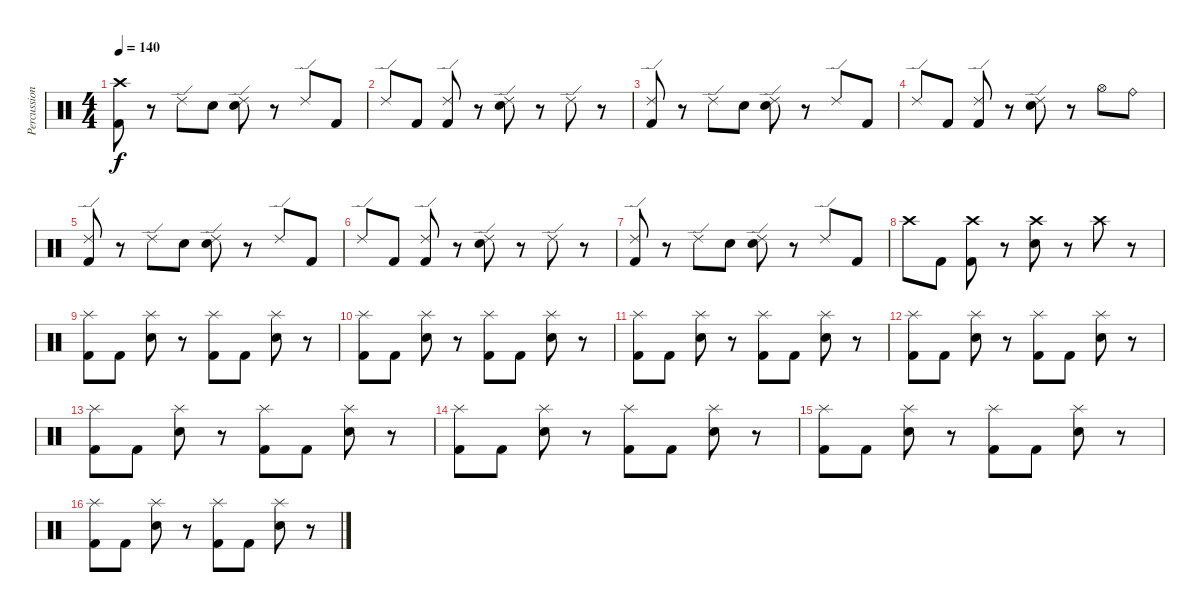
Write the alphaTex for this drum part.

\track ("Percussion" "Percussion") {instrument percussion}
\staff {score}
\articulation defaults
\ts (4 4)
\tempo 140
\clef neutral
\ks c
("Crash high (hit)" "Kick (hit) 2").8{dy f} r.8 "Ride (edge) 2".8 "Snare (hit) 2".8 ("Ride (edge) 2" "Snare (hit) 2").8 r.8 "Ride (edge) 2".8 "Kick (hit) 2".8 |
"Ride (edge) 2".8 "Kick (hit) 2".8 ("Ride (edge) 2" "Kick (hit) 2").8 r.8 ("Ride (edge) 2" "Snare (hit) 2").8 r.8 "Ride (edge) 2".8 r.8 |
("Ride (edge) 2" "Kick (hit) 2").8 r.8 "Ride (edge) 2".8 "Snare (hit) 2".8 ("Ride (edge) 2" "Snare (hit) 2").8 r.8 "Ride (edge) 2".8 "Kick (hit) 2".8 |
"Ride (edge) 2".8 "Kick (hit) 2".8 ("Ride (edge) 2" "Kick (hit) 2").8 r.8 ("Ride (edge) 2" "Snare (hit) 2").8 r.8 "Hi-Hat (open)".8 "Ride (bell)".8 |
("Ride (edge) 2" "Kick (hit) 2").8 r.8 "Ride (edge) 2".8 "Snare (hit) 2".8 ("Ride (edge) 2" "Snare (hit) 2").8 r.8 "Ride (edge) 2".8 "Kick (hit) 2".8 |
"Ride (edge) 2".8 "Kick (hit) 2".8 ("Ride (edge) 2" "Kick (hit) 2").8 r.8 ("Ride (edge) 2" "Snare (hit) 2").8 r.8 "Ride (edge) 2".8 r.8 |
("Ride (edge) 2" "Kick (hit) 2").8 r.8 "Ride (edge) 2".8 "Snare (hit) 2".8 ("Ride (edge) 2" "Snare (hit) 2").8 r.8 "Ride (edge) 2".8 "Kick (hit) 2".8 |
"Crash high (hit)".8 "Kick (hit) 2".8 ("Crash high (hit)" "Kick (hit) 2").8 r.8 ("Crash high (hit)" "Snare (hit) 2").8 r.8 "Crash high (hit)".8 r.8 |
("Splash (hit)" "Kick (hit) 2").8 "Kick (hit) 2".8 ("Splash (hit)" "Snare (hit) 2").8 r.8 ("Splash (hit)" "Kick (hit) 2").8 "Kick (hit) 2".8 ("Splash (hit)" "Snare (hit) 2").8 r.8 |
("Splash (hit)" "Kick (hit) 2").8 "Kick (hit) 2".8 ("Splash (hit)" "Snare (hit) 2").8 r.8 ("Splash (hit)" "Kick (hit) 2").8 "Kick (hit) 2".8 ("Splash (hit)" "Snare (hit) 2").8 r.8 |
("Splash (hit)" "Kick (hit) 2").8 "Kick (hit) 2".8 ("Splash (hit)" "Snare (hit) 2").8 r.8 ("Splash (hit)" "Kick (hit) 2").8 "Kick (hit) 2".8 ("Splash (hit)" "Snare (hit) 2").8 r.8 |
("Splash (hit)" "Kick (hit) 2").8 "Kick (hit) 2".8 ("Splash (hit)" "Snare (hit) 2").8 r.8 ("Splash (hit)" "Kick (hit) 2").8 "Kick (hit) 2".8 ("Splash (hit)" "Snare (hit) 2").8 r.8 |
("Splash (hit)" "Kick (hit) 2").8 "Kick (hit) 2".8 ("Splash (hit)" "Snare (hit) 2").8 r.8 ("Splash (hit)" "Kick (hit) 2").8 "Kick (hit) 2".8 ("Splash (hit)" "Snare (hit) 2").8 r.8 |
("Splash (hit)" "Kick (hit) 2").8 "Kick (hit) 2".8 ("Splash (hit)" "Snare (hit) 2").8 r.8 ("Splash (hit)" "Kick (hit) 2").8 "Kick (hit) 2".8 ("Splash (hit)" "Snare (hit) 2").8 r.8 |
("Splash (hit)" "Kick (hit) 2").8 "Kick (hit) 2".8 ("Splash (hit)" "Snare (hit) 2").8 r.8 ("Splash (hit)" "Kick (hit) 2").8 "Kick (hit) 2".8 ("Splash (hit)" "Snare (hit) 2").8 r.8 |
("Splash (hit)" "Kick (hit) 2").8 "Kick (hit) 2".8 ("Splash (hit)" "Snare (hit) 2").8 r.8 ("Splash (hit)" "Kick (hit) 2").8 "Kick (hit) 2".8 ("Splash (hit)" "Snare (hit) 2").8 r.8
